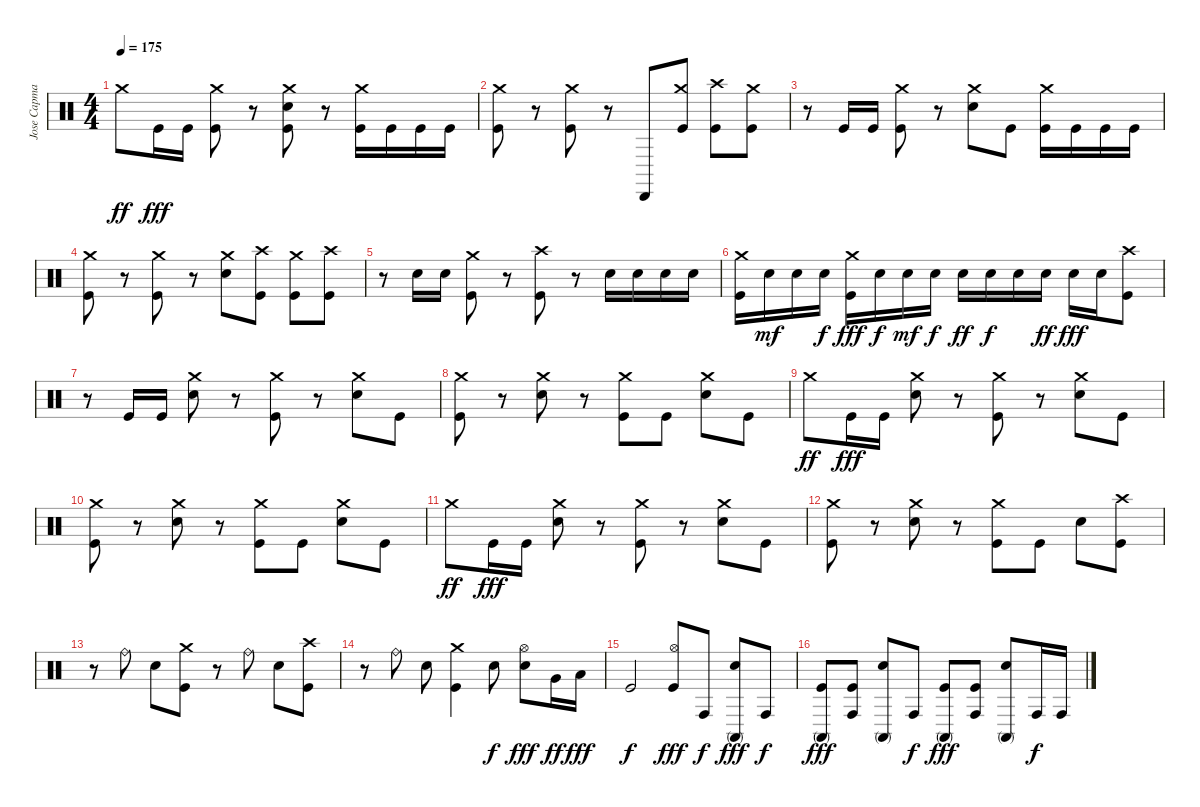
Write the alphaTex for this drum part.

\track ("Jose Capmany" "Jose Capma") {instrument percussion}
\staff {score}
\articulation defaults
\ts (4 4)
\tempo 175
\clef neutral
\ks c "Crash medium (hit)".8{dy ff} "Kick (hit)".16{dy fff} "Kick (hit)".16
("Crash medium (hit)" "Kick (hit)").8 r.8 ("Crash medium (hit)" "Snare (hit) 2" "Kick (hit)").8 r.8 ("Crash medium (hit)" "Kick (hit)").16 "Kick (hit)".16 "Kick (hit)".16 "Kick (hit)".16 |
("Crash medium (hit)" "Kick (hit)").8 r.8 ("Crash medium (hit)" "Kick (hit)").8 r.8 "Cabasa (hit)".8 ("Crash medium (hit)" "Kick (hit)").8 ("Crash high (hit)" "Kick (hit)").8 ("Crash medium (hit)" "Kick (hit)").8 |
r.8 "Kick (hit)".16 "Kick (hit)".16 ("Crash medium (hit)" "Kick (hit)").8 r.8 ("Crash medium (hit)" "Snare (hit) 2").8 "Kick (hit)".8 ("Crash medium (hit)" "Kick (hit)").16 "Kick (hit)".16 "Kick (hit)".16 "Kick (hit)".16 |
("Crash medium (hit)" "Kick (hit)").8 r.8 ("Crash medium (hit)" "Kick (hit)").8 r.8 ("Crash medium (hit)" "Snare (hit) 2").8 ("Crash high (hit)" "Kick (hit)").8 ("Crash medium (hit)" "Kick (hit)").8 ("Crash high (hit)" "Kick (hit)").8 |
r.8 "Snare (hit) 2".16 "Snare (hit) 2".16 ("Crash medium (hit)" "Kick (hit)").8 r.8 ("Crash high (hit)" "Kick (hit)").8 r.8 "Snare (hit) 2".16 "Snare (hit) 2".16 "Snare (hit) 2".16 "Snare (hit) 2".16 |
("Crash medium (hit)" "Kick (hit)").16 "Snare (hit) 2".16{dy mf} "Snare (hit) 2".16 "Snare (hit) 2".16{dy f} ("Crash medium (hit)" "Kick (hit)").16{dy fff} "Snare (hit) 2".16{dy f} "Snare (hit) 2".16{dy mf} "Snare (hit) 2".16{dy f} "Snare (hit) 2".16{dy ff} "Snare (hit) 2".16{dy f} "Snare (hit) 2".16 "Snare (hit) 2".16{dy ff} "Snare (hit) 2".16{dy fff} "Snare (hit) 2".16 ("Crash high (hit)" "Kick (hit)").8 |
r.8 "Kick (hit)".16 "Kick (hit)".16 ("Crash medium (hit)" "Snare (hit) 2").8 r.8 ("Crash medium (hit)" "Kick (hit)").8 r.8 ("Crash medium (hit)" "Snare (hit) 2").8 "Kick (hit)".8 |
("Crash medium (hit)" "Kick (hit)").8 r.8 ("Crash medium (hit)" "Snare (hit) 2").8 r.8 ("Crash medium (hit)" "Kick (hit)").8 "Kick (hit)".8 ("Crash medium (hit)" "Snare (hit) 2").8 "Kick (hit)".8 |
"Crash medium (hit)".8{dy ff} "Kick (hit)".16{dy fff} "Kick (hit)".16 ("Crash medium (hit)" "Snare (hit) 2").8 r.8 ("Crash medium (hit)" "Kick (hit)").8 r.8 ("Crash medium (hit)" "Snare (hit) 2").8 "Kick (hit)".8 |
("Crash medium (hit)" "Kick (hit)").8 r.8 ("Crash medium (hit)" "Snare (hit) 2").8 r.8 ("Crash medium (hit)" "Kick (hit)").8 "Kick (hit)".8 ("Crash medium (hit)" "Snare (hit) 2").8 "Kick (hit)".8 |
"Crash medium (hit)".8{dy ff} "Kick (hit)".16{dy fff} "Kick (hit)".16 ("Crash medium (hit)" "Snare (hit) 2").8 r.8 ("Crash medium (hit)" "Kick (hit)").8 r.8 ("Crash medium (hit)" "Snare (hit) 2").8 "Kick (hit)".8 |
("Crash medium (hit)" "Kick (hit)").8 r.8 ("Crash medium (hit)" "Snare (hit) 2").8 r.8 ("Crash medium (hit)" "Kick (hit)").8 "Kick (hit)".8 "Snare (hit) 2".8 ("Crash high (hit)" "Kick (hit)").8 |
r.8 "Ride (bell)".8 "Snare (hit) 2".8 ("Crash medium (hit)" "Kick (hit)").8 r.8 "Ride (bell)".8 "Snare (hit) 2".8 ("Crash high (hit)" "Kick (hit)").8 |
r.8 "Ride (bell)".8 "Snare (hit) 2".8 ("Crash medium (hit)" "Kick (hit)").4 "Snare (hit) 2".8{dy f} ("Hi-Hat (open)" "Snare (hit) 2").8{dy fff} "Very Low Tom (hit)".16{dy ff} "Low Floor Tom (hit)".16{dy fff} |
"Kick (hit)".2{dy f} ("Hi-Hat (open)" "Kick (hit)").8{dy fff} "Conga high (hit)".8{dy f} ("Conga high (mute)" "Snare (hit) 2").8{dy fff} "Conga high (hit)".8{dy f} |
("Conga high (mute)" "Kick (hit)").8{dy fff} ("Conga high (hit)" "Kick (hit)").8 ("Conga high (mute)" "Snare (hit) 2").8 "Conga high (hit)".8{dy f} ("Conga high (mute)" "Kick (hit)").8{dy fff} ("Conga high (hit)" "Kick (hit)").8 ("Conga high (mute)" "Snare (hit) 2").8 "Conga high (hit)".16{dy f} "Conga high (hit)".16
